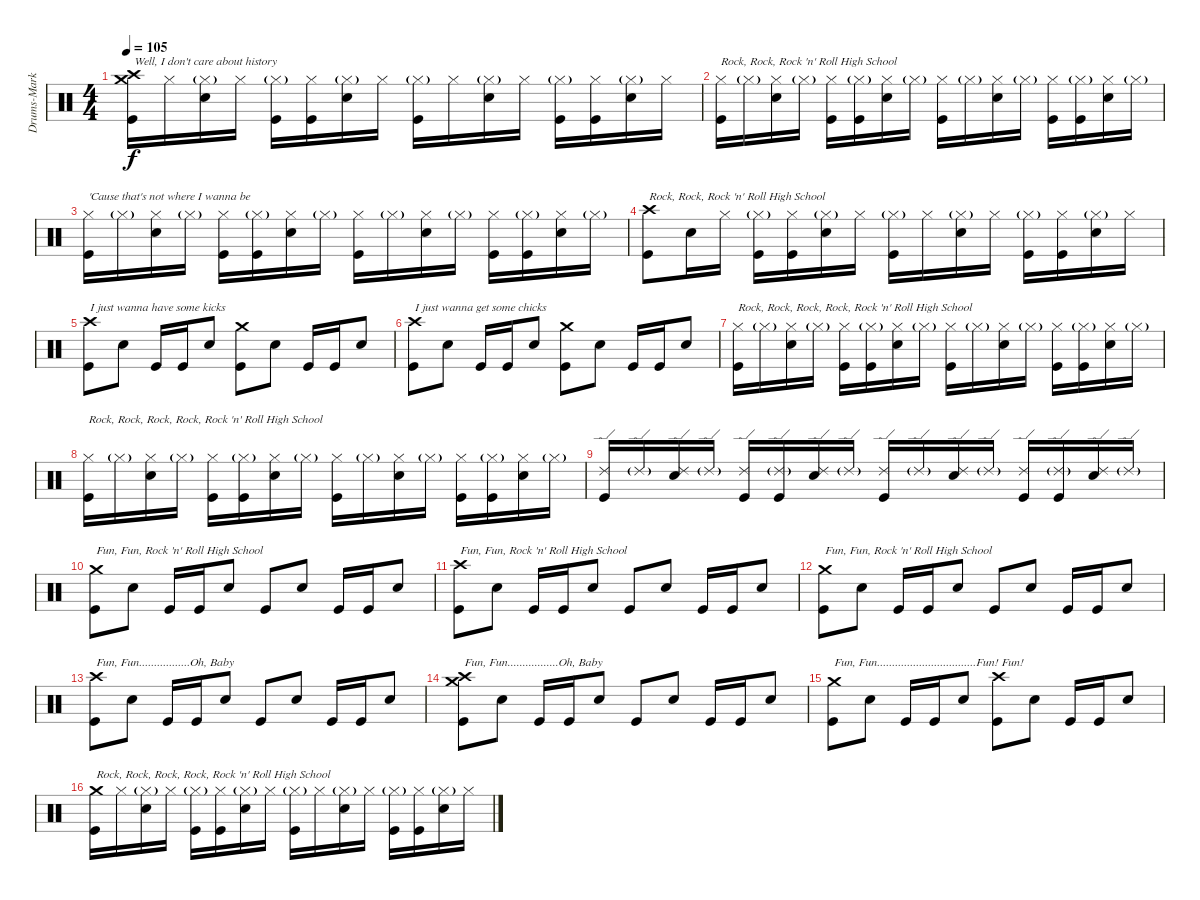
\track ("Drums-Marky Ramone" "Drums-Mark") {instrument percussion}
\staff {score}
\articulation defaults
\ts (4 4)
\tempo 105
\clef neutral
\ks c
("Crash medium (hit)" "Crash high (hit)" "Kick (hit)").16{txt "Well, I don't care about history" dy f} "Hi-Hat (closed)".16 ("Hi-Hat (closed)"{g} "Snare (hit) 2").16 "Hi-Hat (closed)".16 ("Hi-Hat (closed)"{g} "Kick (hit)").16 ("Hi-Hat (closed)" "Kick (hit)").16 ("Hi-Hat (closed)"{g} "Snare (hit) 2").16 "Hi-Hat (closed)".16 ("Hi-Hat (closed)"{g} "Kick (hit)").16 "Hi-Hat (closed)".16 ("Hi-Hat (closed)"{g} "Snare (hit) 2").16 "Hi-Hat (closed)".16 ("Hi-Hat (closed)"{g} "Kick (hit)").16 ("Hi-Hat (closed)" "Kick (hit)").16 ("Hi-Hat (closed)"{g} "Snare (hit) 2").16 "Hi-Hat (closed)".16 |
("Hi-Hat (closed)" "Kick (hit)").16{txt "Rock, Rock, Rock 'n' Roll High School"} "Hi-Hat (closed)"{g}.16 ("Hi-Hat (closed)" "Snare (hit) 2").16 "Hi-Hat (closed)"{g}.16 ("Hi-Hat (closed)" "Kick (hit)").16 ("Hi-Hat (closed)"{g} "Kick (hit)").16 ("Hi-Hat (closed)" "Snare (hit) 2").16 "Hi-Hat (closed)"{g}.16 ("Hi-Hat (closed)" "Kick (hit)").16 "Hi-Hat (closed)"{g}.16 ("Hi-Hat (closed)" "Snare (hit) 2").16 "Hi-Hat (closed)"{g}.16 ("Hi-Hat (closed)" "Kick (hit)").16 ("Hi-Hat (closed)"{g} "Kick (hit)").16 ("Hi-Hat (closed)" "Snare (hit) 2").16 "Hi-Hat (closed)"{g}.16 |
("Hi-Hat (closed)" "Kick (hit)").16{txt "'Cause that's not where I wanna be"} "Hi-Hat (closed)"{g}.16 ("Hi-Hat (closed)" "Snare (hit) 2").16 "Hi-Hat (closed)"{g}.16 ("Hi-Hat (closed)" "Kick (hit)").16 ("Hi-Hat (closed)"{g} "Kick (hit)").16 ("Hi-Hat (closed)" "Snare (hit) 2").16 "Hi-Hat (closed)"{g}.16 ("Hi-Hat (closed)" "Kick (hit)").16 "Hi-Hat (closed)"{g}.16 ("Hi-Hat (closed)" "Snare (hit) 2").16 "Hi-Hat (closed)"{g}.16 ("Hi-Hat (closed)" "Kick (hit)").16 ("Hi-Hat (closed)"{g} "Kick (hit)").16 ("Hi-Hat (closed)" "Snare (hit) 2").16 "Hi-Hat (closed)"{g}.16 |
("Crash high (hit)" "Kick (hit)").8{txt "Rock, Rock, Rock 'n' Roll High School"} "Snare (hit) 2".16 "Hi-Hat (closed)".16 ("Hi-Hat (closed)"{g} "Kick (hit)").16 ("Hi-Hat (closed)" "Kick (hit)").16 ("Hi-Hat (closed)"{g} "Snare (hit) 2").16 "Hi-Hat (closed)".16 ("Hi-Hat (closed)"{g} "Kick (hit)").16 "Hi-Hat (closed)".16 ("Hi-Hat (closed)"{g} "Snare (hit) 2").16 "Hi-Hat (closed)".16 ("Hi-Hat (closed)"{g} "Kick (hit)").16 ("Hi-Hat (closed)" "Kick (hit)").16 ("Hi-Hat (closed)"{g} "Snare (hit) 2").16 "Hi-Hat (closed)".16 |
("Crash high (hit)" "Kick (hit)").8{txt "I just wanna have some kicks"} "Snare (hit) 2".8 "Kick (hit)".16 "Kick (hit)".16 "Snare (hit) 2".8 ("Crash medium (hit)" "Kick (hit)").8 "Snare (hit) 2".8 "Kick (hit)".16 "Kick (hit)".16 "Snare (hit) 2".8 |
("Crash high (hit)" "Kick (hit)").8{txt "I just wanna get some chicks"} "Snare (hit) 2".8 "Kick (hit)".16 "Kick (hit)".16 "Snare (hit) 2".8 ("Crash medium (hit)" "Kick (hit)").8 "Snare (hit) 2".8 "Kick (hit)".16 "Kick (hit)".16 "Snare (hit) 2".8 |
("Hi-Hat (closed)" "Kick (hit)").16{txt "Rock, Rock, Rock, Rock, Rock 'n' Roll High School"} "Hi-Hat (closed)"{g}.16 ("Hi-Hat (closed)" "Snare (hit) 2").16 "Hi-Hat (closed)"{g}.16 ("Hi-Hat (closed)" "Kick (hit)").16 ("Hi-Hat (closed)"{g} "Kick (hit)").16 ("Hi-Hat (closed)" "Snare (hit) 2").16 "Hi-Hat (closed)"{g}.16 ("Hi-Hat (closed)" "Kick (hit)").16 "Hi-Hat (closed)"{g}.16 ("Hi-Hat (closed)" "Snare (hit) 2").16 "Hi-Hat (closed)"{g}.16 ("Hi-Hat (closed)" "Kick (hit)").16 ("Hi-Hat (closed)"{g} "Kick (hit)").16 ("Hi-Hat (closed)" "Snare (hit) 2").16 "Hi-Hat (closed)"{g}.16 |
("Hi-Hat (closed)" "Kick (hit)").16{txt "Rock, Rock, Rock, Rock, Rock 'n' Roll High School"} "Hi-Hat (closed)"{g}.16 ("Hi-Hat (closed)" "Snare (hit) 2").16 "Hi-Hat (closed)"{g}.16 ("Hi-Hat (closed)" "Kick (hit)").16 ("Hi-Hat (closed)"{g} "Kick (hit)").16 ("Hi-Hat (closed)" "Snare (hit) 2").16 "Hi-Hat (closed)"{g}.16 ("Hi-Hat (closed)" "Kick (hit)").16 "Hi-Hat (closed)"{g}.16 ("Hi-Hat (closed)" "Snare (hit) 2").16 "Hi-Hat (closed)"{g}.16 ("Hi-Hat (closed)" "Kick (hit)").16 ("Hi-Hat (closed)"{g} "Kick (hit)").16 ("Hi-Hat (closed)" "Snare (hit) 2").16 "Hi-Hat (closed)"{g}.16 |
("Ride (edge) 2" "Kick (hit)").16 "Ride (edge) 2"{g}.16 ("Ride (edge) 2" "Snare (hit) 2").16 "Ride (edge) 2"{g}.16 ("Ride (edge) 2" "Kick (hit)").16 ("Ride (edge) 2"{g} "Kick (hit)").16 ("Ride (edge) 2" "Snare (hit) 2").16 "Ride (edge) 2"{g}.16 ("Ride (edge) 2" "Kick (hit)").16 "Ride (edge) 2"{g}.16 ("Ride (edge) 2" "Snare (hit) 2").16 "Ride (edge) 2"{g}.16 ("Ride (edge) 2" "Kick (hit)").16 ("Ride (edge) 2"{g} "Kick (hit)").16 ("Ride (edge) 2" "Snare (hit) 2").16 "Ride (edge) 2"{g}.16 |
("Crash medium (hit)" "Kick (hit)").8{txt "Fun, Fun, Rock 'n' Roll High School"} "Snare (hit) 2".8 "Kick (hit)".16 "Kick (hit)".16 "Snare (hit) 2".8 "Kick (hit)".8 "Snare (hit) 2".8 "Kick (hit)".16 "Kick (hit)".16 "Snare (hit) 2".8 |
("Crash high (hit)" "Kick (hit)").8{txt "Fun, Fun, Rock 'n' Roll High School"} "Snare (hit) 2".8 "Kick (hit)".16 "Kick (hit)".16 "Snare (hit) 2".8 "Kick (hit)".8 "Snare (hit) 2".8 "Kick (hit)".16 "Kick (hit)".16 "Snare (hit) 2".8 |
("Crash medium (hit)" "Kick (hit)").8{txt "Fun, Fun, Rock 'n' Roll High School"} "Snare (hit) 2".8 "Kick (hit)".16 "Kick (hit)".16 "Snare (hit) 2".8 "Kick (hit)".8 "Snare (hit) 2".8 "Kick (hit)".16 "Kick (hit)".16 "Snare (hit) 2".8 |
("Crash high (hit)" "Kick (hit)").8{txt "Fun, Fun.................Oh, Baby"} "Snare (hit) 2".8 "Kick (hit)".16 "Kick (hit)".16 "Snare (hit) 2".8 "Kick (hit)".8 "Snare (hit) 2".8 "Kick (hit)".16 "Kick (hit)".16 "Snare (hit) 2".8 |
("Crash medium (hit)" "Crash high (hit)" "Kick (hit)").8{txt "Fun, Fun.................Oh, Baby"} "Snare (hit) 2".8 "Kick (hit)".16 "Kick (hit)".16 "Snare (hit) 2".8 "Kick (hit)".8 "Snare (hit) 2".8 "Kick (hit)".16 "Kick (hit)".16 "Snare (hit) 2".8 |
("Crash medium (hit)" "Kick (hit)").8{txt "Fun, Fun.................................Fun! Fun!"} "Snare (hit) 2".8 "Kick (hit)".16 "Kick (hit)".16 "Snare (hit) 2".8 ("Crash high (hit)" "Kick (hit)").8 "Snare (hit) 2".8 "Kick (hit)".16 "Kick (hit)".16 "Snare (hit) 2".8 |
("Crash medium (hit)" "Kick (hit)").16{txt "Rock, Rock, Rock, Rock, Rock 'n' Roll High School"} "Hi-Hat (closed)".16 ("Hi-Hat (closed)"{g} "Snare (hit) 2").16 "Hi-Hat (closed)".16 ("Hi-Hat (closed)"{g} "Kick (hit)").16 ("Hi-Hat (closed)" "Kick (hit)").16 ("Hi-Hat (closed)"{g} "Snare (hit) 2").16 "Hi-Hat (closed)".16 ("Hi-Hat (closed)"{g} "Kick (hit)").16 "Hi-Hat (closed)".16 ("Hi-Hat (closed)"{g} "Snare (hit) 2").16 "Hi-Hat (closed)".16 ("Hi-Hat (closed)"{g} "Kick (hit)").16 ("Hi-Hat (closed)" "Kick (hit)").16 ("Hi-Hat (closed)"{g} "Snare (hit) 2").16 "Hi-Hat (closed)".16
